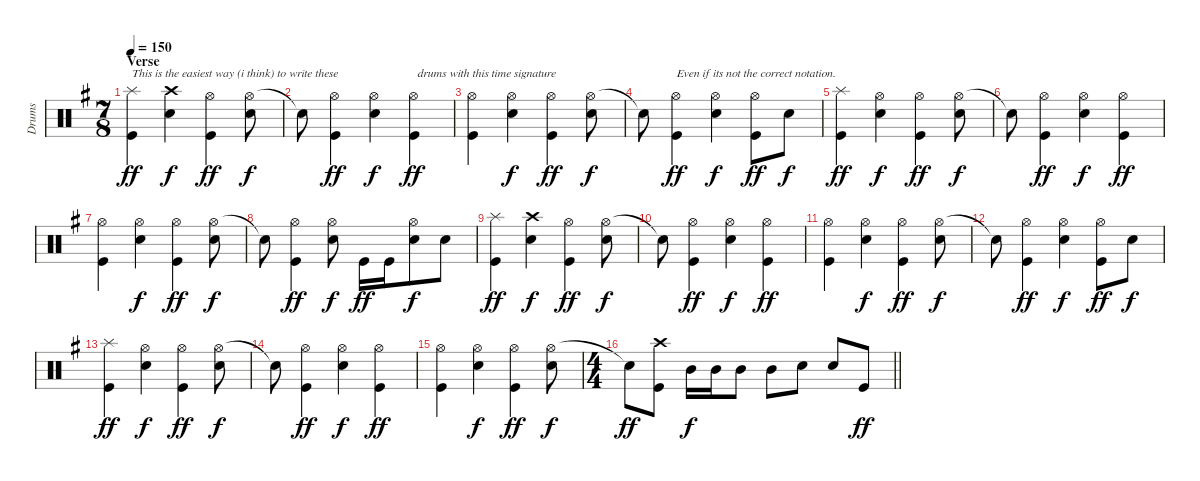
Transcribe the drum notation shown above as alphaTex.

\track ("Drums" "Drums") {instrument percussion}
\staff {score}
\articulation defaults
\ts (7 8)
\section ("" "Verse")
\tempo 150
\clef neutral
\ks g
("Splash (hit)" "Kick (hit)").4{txt "This is the easiest way (i think) to write these" dy ff} ("Crash high (hit)" "Electric Snare (hit)").4{dy f} ("Hi-Hat (open)" "Kick (hit)").4{dy ff} ("Hi-Hat (open)" "Electric Snare (hit)").8{dy f} |
"Snare (hit)"{t}.8 ("Hi-Hat (open)" "Kick (hit)").4{dy ff} ("Hi-Hat (open)" "Electric Snare (hit)").4{dy f} ("Hi-Hat (open)" "Kick (hit)").4{txt " drums with this time signature" dy ff} |
("Hi-Hat (open)" "Kick (hit)").4 ("Hi-Hat (open)" "Electric Snare (hit)").4{dy f} ("Hi-Hat (open)" "Kick (hit)").4{dy ff} ("Hi-Hat (open)" "Electric Snare (hit)").8{dy f} |
"Snare (hit)"{t}.8 ("Hi-Hat (open)" "Kick (hit)").4{txt "Even if its not the correct notation." dy ff} ("Hi-Hat (open)" "Electric Snare (hit)").4{dy f} ("Hi-Hat (open)" "Kick (hit)").8{dy ff} "Electric Snare (hit)".8{dy f} |
("Splash (hit)" "Kick (hit)").4{dy ff} ("Hi-Hat (open)" "Electric Snare (hit)").4{dy f} ("Hi-Hat (open)" "Kick (hit)").4{dy ff} ("Hi-Hat (open)" "Electric Snare (hit)").8{dy f} |
"Snare (hit)"{t}.8 ("Hi-Hat (open)" "Kick (hit)").4{dy ff} ("Hi-Hat (open)" "Electric Snare (hit)").4{dy f} ("Hi-Hat (open)" "Kick (hit)").4{dy ff} |
("Hi-Hat (open)" "Kick (hit)").4 ("Hi-Hat (open)" "Electric Snare (hit)").4{dy f} ("Hi-Hat (open)" "Kick (hit)").4{dy ff} ("Hi-Hat (open)" "Electric Snare (hit)").8{dy f} |
"Snare (hit)"{t}.8 ("Hi-Hat (open)" "Kick (hit)").4{dy ff} ("Hi-Hat (open)" "Electric Snare (hit)").8{dy f} "Kick (hit)".16{dy ff} "Kick (hit)".16 ("Hi-Hat (open)" "Electric Snare (hit)").8{dy f} "Electric Snare (hit)".8 |
("Splash (hit)" "Kick (hit)").4{dy ff} ("Crash high (hit)" "Electric Snare (hit)").4{dy f} ("Hi-Hat (open)" "Kick (hit)").4{dy ff} ("Hi-Hat (open)" "Electric Snare (hit)").8{dy f} |
"Snare (hit)"{t}.8 ("Hi-Hat (open)" "Kick (hit)").4{dy ff} ("Hi-Hat (open)" "Electric Snare (hit)").4{dy f} ("Hi-Hat (open)" "Kick (hit)").4{dy ff} |
("Hi-Hat (open)" "Kick (hit)").4 ("Hi-Hat (open)" "Electric Snare (hit)").4{dy f} ("Hi-Hat (open)" "Kick (hit)").4{dy ff} ("Hi-Hat (open)" "Electric Snare (hit)").8{dy f} |
"Snare (hit)"{t}.8 ("Hi-Hat (open)" "Kick (hit)").4{dy ff} ("Hi-Hat (open)" "Electric Snare (hit)").4{dy f} ("Hi-Hat (open)" "Kick (hit)").8{dy ff} "Electric Snare (hit)".8{dy f} |
("Splash (hit)" "Kick (hit)").4{dy ff} ("Hi-Hat (open)" "Electric Snare (hit)").4{dy f} ("Hi-Hat (open)" "Kick (hit)").4{dy ff} ("Hi-Hat (open)" "Electric Snare (hit)").8{dy f} |
"Snare (hit)"{t}.8 ("Hi-Hat (open)" "Kick (hit)").4{dy ff} ("Hi-Hat (open)" "Electric Snare (hit)").4{dy f} ("Hi-Hat (open)" "Kick (hit)").4{dy ff} |
("Hi-Hat (open)" "Kick (hit)").4 ("Hi-Hat (open)" "Electric Snare (hit)").4{dy f} ("Hi-Hat (open)" "Kick (hit)").4{dy ff} ("Hi-Hat (open)" "Electric Snare (hit)").8{dy f} |
\ts (4 4)
\barLineRight lightlight "Snare (hit)"{t}.8{dy ff}
("Crash high (hit)" "Kick (hit)").8 "Mid Tom (hit)".16{dy f} "Mid Tom (hit)".16 "Mid Tom (hit)".8 "Mid Tom (hit)".8 "Electric Snare (hit)".8 "Electric Snare (hit)".8 "Kick (hit)".8{dy ff}
